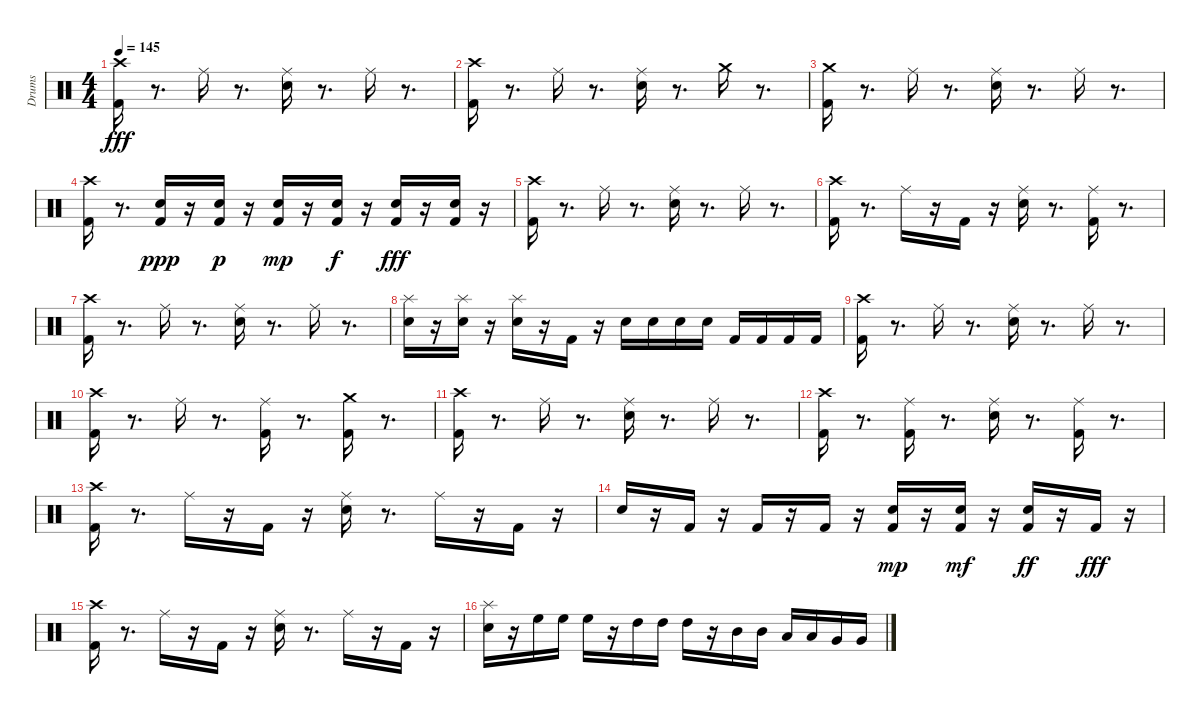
\track ("Drums" "Drums") {instrument percussion}
\staff {score}
\articulation defaults
\ts (4 4)
\tempo 145
\clef neutral
\ks c
("Kick (hit) 2" "Crash high (hit)").16{dy fff} r.8{d} "Ride (middle)".16 r.8{d} ("Electric Snare (hit)" "Ride (middle)").16 r.8{d} "Ride (middle)".16 r.8{d} |
("Crash high (hit)" "Kick (hit) 2").16 r.8{d} "Ride (middle)".16 r.8{d} ("Ride (middle)" "Electric Snare (hit)").16 r.8{d} "Crash medium (hit)".16 r.8{d} |
("Kick (hit) 2" "Crash medium (hit)").16 r.8{d} "Ride (middle)".16 r.8{d} ("Ride (middle)" "Electric Snare (hit)").16 r.8{d} "Ride (middle)".16 r.8{d} |
("Crash high (hit)" "Kick (hit) 2").16 r.8{d} ("Kick (hit) 2" "Electric Snare (hit)").16{dy ppp} r.16 ("Kick (hit) 2" "Electric Snare (hit)").16{dy p} r.16 ("Kick (hit) 2" "Electric Snare (hit)").16{dy mp} r.16 ("Kick (hit) 2" "Electric Snare (hit)").16{dy f} r.16 ("Kick (hit) 2" "Electric Snare (hit)").16{dy fff} r.16 ("Electric Snare (hit)" "Kick (hit) 2").16 r.16 |
("Crash high (hit)" "Kick (hit) 2").16 r.8{d} "Ride (middle)".16 r.8{d} ("Ride (middle)" "Electric Snare (hit)").16 r.8{d} "Ride (middle)".16 r.8{d} |
("Crash high (hit)" "Kick (hit) 2").16 r.8{d} "Ride (middle)".16 r.16 "Kick (hit) 2".16 r.16 ("Electric Snare (hit)" "Ride (middle)").16 r.8{d} ("Kick (hit) 2" "Ride (middle)").16 r.8{d} |
("Kick (hit) 2" "Crash high (hit)").16 r.8{d} "Ride (middle)".16 r.8{d} ("Electric Snare (hit)" "Ride (middle)").16 r.8{d} "Ride (middle)".16 r.8{d} |
("Splash (hit)" "Electric Snare (hit)").16 r.16 ("Splash (hit)" "Electric Snare (hit)").16 r.16 ("Splash (hit)" "Electric Snare (hit)").16 r.16 "Kick (hit) 2".16 r.16 "Electric Snare (hit)".16 "Electric Snare (hit)".16 "Electric Snare (hit)".16 "Electric Snare (hit)".16 "Kick (hit) 2".16 "Kick (hit) 2".16 "Kick (hit) 2".16 "Kick (hit) 2".16 |
("Crash high (hit)" "Kick (hit) 2").16 r.8{d} "Ride (middle)".16 r.8{d} ("Ride (middle)" "Electric Snare (hit)").16 r.8{d} "Ride (middle)".16 r.8{d} |
("Crash high (hit)" "Kick (hit) 2").16 r.8{d} "Ride (middle)".16 r.8{d} ("Ride (middle)" "Kick (hit) 2").16 r.8{d} ("Crash medium (hit)" "Kick (hit) 2").16 r.8{d} |
("Kick (hit) 2" "Crash high (hit)").16 r.8{d} "Ride (middle)".16 r.8{d} ("Electric Snare (hit)" "Ride (middle)").16 r.8{d} "Ride (middle)".16 r.8{d} |
("Kick (hit) 2" "Crash high (hit)").16 r.8{d} ("Kick (hit) 2" "Ride (middle)").16 r.8{d} ("Electric Snare (hit)" "Ride (middle)").16 r.8{d} ("Kick (hit) 2" "Ride (middle)").16 r.8{d} |
("Crash high (hit)" "Kick (hit) 2").16 r.8{d} "Ride (middle)".16 r.16 "Kick (hit) 2".16 r.16 ("Ride (middle)" "Electric Snare (hit)").16 r.8{d} "Ride (middle)".16 r.16 "Kick (hit) 2".16 r.16 |
"Electric Snare (hit)".16 r.16 "Kick (hit) 2".16 r.16 "Kick (hit) 2".16 r.16 "Kick (hit) 2".16 r.16 ("Electric Snare (hit)" "Kick (hit) 2").16{dy mp} r.16 ("Electric Snare (hit)" "Kick (hit) 2").16{dy mf} r.16 ("Electric Snare (hit)" "Kick (hit) 2").16{dy ff} r.16 "Kick (hit) 2".16{dy fff} r.16 |
("Kick (hit) 2" "Crash high (hit)").16 r.8{d} "Ride (middle)".16 r.16 "Kick (hit) 2".16 r.16 ("Electric Snare (hit)" "Ride (middle)").16 r.8{d} "Ride (middle)".16 r.16 "Kick (hit) 2".16 r.16 |
("Splash (hit)" "Electric Snare (hit)").16 r.16 "High Floor Tom (hit)".16 "High Floor Tom (hit)".16 "High Floor Tom (hit)".16 r.16 "High Tom (hit)".16 "High Tom (hit)".16 "High Tom (hit)".16 r.16 "Mid Tom (hit)".16 "Mid Tom (hit)".16 "Low Tom (hit)".16 "Low Tom (hit)".16 "Very Low Tom (hit)".16 "Very Low Tom (hit)".16
